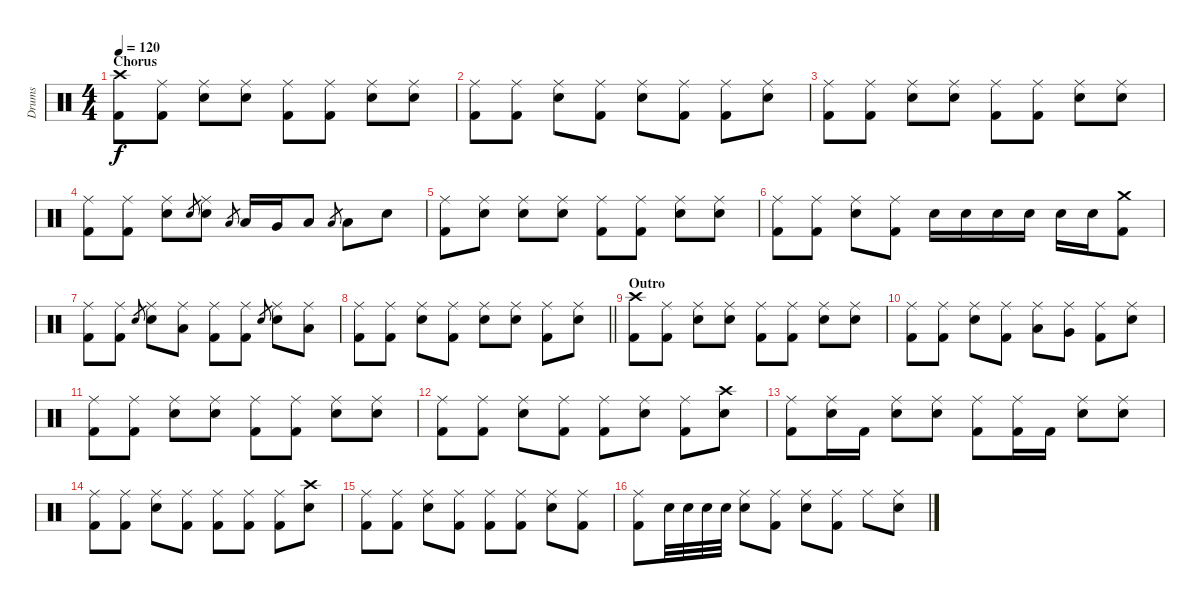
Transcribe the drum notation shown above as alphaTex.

\track ("Drums" "Drums") {instrument percussion}
\staff {score}
\articulation defaults
\ts (4 4)
\section ("" "Chorus")
\tempo 120
\clef neutral
\ks c
("Crash high (hit)" "Kick (hit) 2").8{dy f} ("Ride (middle)" "Kick (hit) 2").8 ("Ride (middle)" "Snare (hit) 2").8 ("Ride (middle)" "Snare (hit) 2").8 ("Ride (middle)" "Kick (hit) 2").8 ("Ride (middle)" "Kick (hit) 2").8 ("Ride (middle)" "Snare (hit) 2").8 ("Ride (middle)" "Snare (hit) 2").8 |
("Ride (middle)" "Kick (hit) 2").8 ("Ride (middle)" "Kick (hit) 2").8 ("Ride (middle)" "Snare (hit) 2").8 ("Ride (middle)" "Kick (hit) 2").8 ("Ride (middle)" "Snare (hit) 2").8 ("Ride (middle)" "Kick (hit) 2").8 ("Ride (middle)" "Kick (hit) 2").8 ("Ride (middle)" "Snare (hit) 2").8 |
("Ride (middle)" "Kick (hit) 2").8 ("Ride (middle)" "Kick (hit) 2").8 ("Ride (middle)" "Snare (hit) 2").8 ("Ride (middle)" "Snare (hit) 2").8 ("Ride (middle)" "Kick (hit) 2").8 ("Ride (middle)" "Kick (hit) 2").8 ("Ride (middle)" "Snare (hit) 2").8 ("Ride (middle)" "Snare (hit) 2").8 |
("Ride (middle)" "Kick (hit) 2").8 ("Ride (middle)" "Kick (hit) 2").8 ("Ride (middle)" "Snare (hit) 2").8 "Snare (hit) 2".8{gr} ("Ride (middle)" "Snare (hit) 2").8 "Low Tom (hit)".8{gr} "Low Tom (hit)".16 "Very Low Tom (hit)".16 "Low Floor Tom (hit)".8 "Low Tom (hit)".8{gr} "Low Tom (hit)".8 "Snare (hit) 2".8 |
("Ride (middle)" "Kick (hit) 2").8 ("Ride (middle)" "Snare (hit) 2").8 ("Ride (middle)" "Snare (hit) 2").8 ("Ride (middle)" "Snare (hit) 2").8 ("Ride (middle)" "Kick (hit) 2").8 ("Ride (middle)" "Kick (hit) 2").8 ("Ride (middle)" "Snare (hit) 2").8 ("Ride (middle)" "Snare (hit) 2").8 |
("Ride (middle)" "Kick (hit) 2").8 ("Ride (middle)" "Kick (hit) 2").8 ("Ride (middle)" "Snare (hit) 2").8 ("Ride (middle)" "Kick (hit) 2").8 "Snare (hit) 2".16 "Snare (hit) 2".16 "Snare (hit) 2".16 "Snare (hit) 2".16 "Snare (hit) 2".16 "Snare (hit) 2".16 ("Crash medium (hit)" "Kick (hit) 2").8 |
("Ride (middle)" "Kick (hit) 2").8 ("Ride (middle)" "Kick (hit) 2").8 "Snare (hit) 2".8{gr} ("Ride (middle)" "Snare (hit) 2").8 ("Ride (middle)" "Low Tom (hit)").8 ("Ride (middle)" "Kick (hit) 2").8 ("Ride (middle)" "Kick (hit) 2").8 "Snare (hit) 2".8{gr} ("Ride (middle)" "Snare (hit) 2").8 ("Ride (middle)" "Low Tom (hit)").8 |
\barLineRight lightlight
("Ride (middle)" "Kick (hit) 2").8 ("Ride (middle)" "Kick (hit) 2").8 ("Ride (middle)" "Snare (hit) 2").8 ("Ride (middle)" "Kick (hit) 2").8 ("Ride (middle)" "Snare (hit) 2").8 ("Ride (middle)" "Snare (hit) 2").8 ("Ride (middle)" "Kick (hit) 2").8 ("Ride (middle)" "Snare (hit) 2").8 |
\section ("" "Outro")
("Crash high (hit)" "Kick (hit) 2").8 ("Ride (middle)" "Kick (hit) 2").8 ("Ride (middle)" "Snare (hit) 2").8 ("Ride (middle)" "Snare (hit) 2").8 ("Ride (middle)" "Kick (hit) 2").8 ("Ride (middle)" "Kick (hit) 2").8 ("Ride (middle)" "Snare (hit) 2").8 ("Ride (middle)" "Snare (hit) 2").8 |
("Ride (middle)" "Kick (hit) 2").8 ("Ride (middle)" "Kick (hit) 2").8 ("Ride (middle)" "Snare (hit) 2").8 ("Ride (middle)" "Kick (hit) 2").8 ("Ride (middle)" "Low Tom (hit)").8 ("Ride (middle)" "Very Low Tom (hit)").8 ("Ride (middle)" "Kick (hit) 2").8 ("Ride (middle)" "Snare (hit) 2").8 |
("Ride (middle)" "Kick (hit) 2").8 ("Ride (middle)" "Kick (hit) 2").8 ("Ride (middle)" "Snare (hit) 2").8 ("Ride (middle)" "Snare (hit) 2").8 ("Ride (middle)" "Kick (hit) 2").8 ("Ride (middle)" "Kick (hit) 2").8 ("Ride (middle)" "Snare (hit) 2").8 ("Ride (middle)" "Snare (hit) 2").8 |
("Ride (middle)" "Kick (hit) 2").8 ("Ride (middle)" "Kick (hit) 2").8 ("Ride (middle)" "Snare (hit) 2").8 ("Ride (middle)" "Kick (hit) 2").8 ("Ride (middle)" "Kick (hit) 2").8 ("Ride (middle)" "Snare (hit) 2").8 ("Ride (middle)" "Kick (hit) 2").8 ("Crash high (hit)" "Snare (hit) 2").8 |
("Ride (middle)" "Kick (hit) 2").8 ("Ride (middle)" "Snare (hit) 2").16 "Kick (hit) 2".16 ("Ride (middle)" "Snare (hit) 2").8 ("Ride (middle)" "Snare (hit) 2").8 ("Ride (middle)" "Kick (hit) 2").8 ("Ride (middle)" "Kick (hit) 2").16 "Kick (hit) 2".16 ("Ride (middle)" "Snare (hit) 2").8 ("Ride (middle)" "Snare (hit) 2").8 |
("Ride (middle)" "Kick (hit) 2").8 ("Ride (middle)" "Kick (hit) 2").8 ("Ride (middle)" "Snare (hit) 2").8 ("Ride (middle)" "Kick (hit) 2").8 ("Ride (middle)" "Kick (hit) 2").8 ("Ride (middle)" "Kick (hit) 2").8 ("Ride (middle)" "Kick (hit) 2").8 ("Crash high (hit)" "Snare (hit) 2").8 |
("Ride (middle)" "Kick (hit) 2").8 ("Ride (middle)" "Kick (hit) 2").8 ("Ride (middle)" "Snare (hit) 2").8 ("Ride (middle)" "Kick (hit) 2").8 ("Ride (middle)" "Kick (hit) 2").8 ("Ride (middle)" "Kick (hit) 2").8 ("Ride (middle)" "Snare (hit) 2").8 ("Ride (middle)" "Kick (hit) 2").8 |
("Ride (middle)" "Kick (hit) 2").8 "Snare (hit) 2".32 "Snare (hit) 2".32 "Snare (hit) 2".32 "Snare (hit) 2".32 ("Ride (middle)" "Snare (hit) 2").8 ("Ride (middle)" "Kick (hit) 2").8 ("Ride (middle)" "Snare (hit) 2").8 ("Ride (middle)" "Kick (hit) 2").8 "Ride (middle)".8 ("Ride (middle)" "Snare (hit) 2").8
